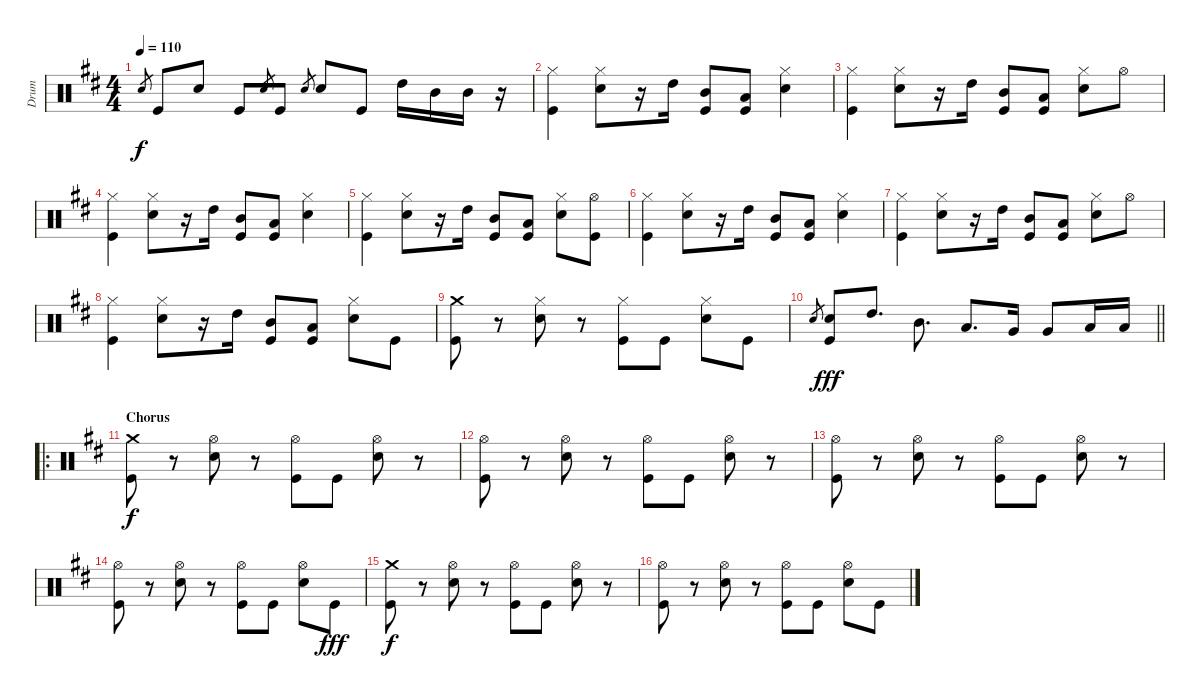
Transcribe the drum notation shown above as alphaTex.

\track ("Drum" "Drum") {instrument percussion}
\staff {score}
\articulation defaults
\ts (4 4)
\tempo 110
\clef neutral
\ks d "Electric Snare (hit)".8{gr dy f} "Kick (hit)".8 "Electric Snare (hit)".8 "Kick (hit)".8 "Electric Snare (hit)".8{gr} "Kick (hit)".8 "Electric Snare (hit)".8{gr} "Electric Snare (hit)".8 "Kick (hit)".8 "High Tom (hit)".16 "Mid Tom (hit)".16 "Mid Tom (hit)".16
r.16 |
("Hi-Hat (closed)" "Kick (hit)").4 ("Hi-Hat (closed)" "Electric Snare (hit)").8 r.16 "High Tom (hit)".16 ("Mid Tom (hit)" "Kick (hit)").8 ("Low Tom (hit)" "Kick (hit)").8 ("Hi-Hat (closed)" "Electric Snare (hit)").4 |
("Hi-Hat (closed)" "Kick (hit)").4 ("Hi-Hat (closed)" "Electric Snare (hit)").8 r.16 "High Tom (hit)".16 ("Mid Tom (hit)" "Kick (hit)").8 ("Low Tom (hit)" "Kick (hit)").8 ("Hi-Hat (closed)" "Electric Snare (hit)").8 "Hi-Hat (open)".8 |
("Hi-Hat (closed)" "Kick (hit)").4 ("Hi-Hat (closed)" "Electric Snare (hit)").8 r.16 "High Tom (hit)".16 ("Mid Tom (hit)" "Kick (hit)").8 ("Low Tom (hit)" "Kick (hit)").8 ("Hi-Hat (closed)" "Electric Snare (hit)").4 |
("Hi-Hat (closed)" "Kick (hit)").4 ("Hi-Hat (closed)" "Electric Snare (hit)").8 r.16 "High Tom (hit)".16 ("Mid Tom (hit)" "Kick (hit)").8 ("Low Tom (hit)" "Kick (hit)").8 ("Hi-Hat (closed)" "Electric Snare (hit)").8 ("Hi-Hat (open)" "Kick (hit)").8 |
("Hi-Hat (closed)" "Kick (hit)").4 ("Hi-Hat (closed)" "Electric Snare (hit)").8 r.16 "High Tom (hit)".16 ("Mid Tom (hit)" "Kick (hit)").8 ("Low Tom (hit)" "Kick (hit)").8 ("Hi-Hat (closed)" "Electric Snare (hit)").4 |
("Hi-Hat (closed)" "Kick (hit)").4 ("Hi-Hat (closed)" "Electric Snare (hit)").8 r.16 "High Tom (hit)".16 ("Mid Tom (hit)" "Kick (hit)").8 ("Low Tom (hit)" "Kick (hit)").8 ("Hi-Hat (closed)" "Electric Snare (hit)").8 "Hi-Hat (open)".8 |
("Hi-Hat (closed)" "Kick (hit)").4 ("Hi-Hat (closed)" "Electric Snare (hit)").8 r.16 "High Tom (hit)".16 ("Mid Tom (hit)" "Kick (hit)").8 ("Low Tom (hit)" "Kick (hit)").8 ("Hi-Hat (closed)" "Electric Snare (hit)").8 "Kick (hit)".8 |
("Crash medium (hit)" "Kick (hit)").8 r.8 ("Hi-Hat (closed)" "Electric Snare (hit)").8 r.8 ("Hi-Hat (closed)" "Kick (hit)").8 "Kick (hit)".8 ("Hi-Hat (closed)" "Electric Snare (hit)").8 "Kick (hit)".8 |
\barLineRight lightlight "Electric Snare (hit)".8{gr}
("Kick (hit)" "Electric Snare (hit)").8{dy fff} "High Tom (hit)".8{d} "Mid Tom (hit)".8{d} "Low Tom (hit)".8{d} "Very Low Tom (hit)".16 "Very Low Tom (hit)".8 "Low Floor Tom (hit)".16 "Low Floor Tom (hit)".16 |
\ro
\section ("" "Chorus")
("Crash medium (hit)" "Kick (hit)").8{dy f} r.8 ("Hi-Hat (open)" "Electric Snare (hit)").8 r.8 ("Hi-Hat (open)" "Kick (hit)").8 "Kick (hit)".8 ("Hi-Hat (open)" "Electric Snare (hit)").8 r.8 |
("Hi-Hat (open)" "Kick (hit)").8 r.8 ("Hi-Hat (open)" "Electric Snare (hit)").8 r.8 ("Hi-Hat (open)" "Kick (hit)").8 "Kick (hit)".8 ("Hi-Hat (open)" "Electric Snare (hit)").8 r.8 |
("Hi-Hat (open)" "Kick (hit)").8 r.8 ("Hi-Hat (open)" "Electric Snare (hit)").8 r.8 ("Hi-Hat (open)" "Kick (hit)").8 "Kick (hit)".8 ("Hi-Hat (open)" "Electric Snare (hit)").8 r.8 |
("Hi-Hat (open)" "Kick (hit)").8 r.8 ("Hi-Hat (open)" "Electric Snare (hit)").8 r.8 ("Hi-Hat (open)" "Kick (hit)").8 "Kick (hit)".8 ("Hi-Hat (open)" "Electric Snare (hit)").8 "Kick (hit)".8{dy fff} |
("Crash medium (hit)" "Kick (hit)").8{dy f} r.8 ("Hi-Hat (open)" "Electric Snare (hit)").8 r.8 ("Hi-Hat (open)" "Kick (hit)").8 "Kick (hit)".8 ("Hi-Hat (open)" "Electric Snare (hit)").8 r.8 |
("Hi-Hat (open)" "Kick (hit)").8 r.8 ("Hi-Hat (open)" "Electric Snare (hit)").8 r.8 ("Hi-Hat (open)" "Kick (hit)").8 "Kick (hit)".8 ("Hi-Hat (open)" "Electric Snare (hit)").8 "Kick (hit)".8
